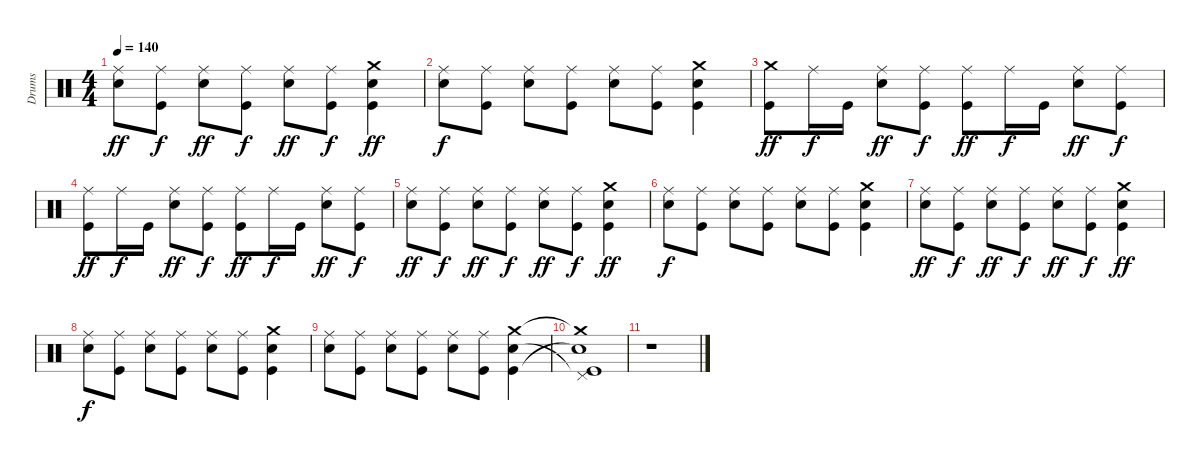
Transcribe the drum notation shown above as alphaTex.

\track ("Drums" "Drums") {instrument percussion}
\staff {score}
\articulation defaults
\ts (4 4)
\tempo 140
\clef neutral
\ks c
("Ride (middle)" "Snare (hit) 2").8{dy ff} ("Ride (middle)" "Kick (hit)").8{dy f} ("Ride (middle)" "Snare (hit) 2").8{dy ff} ("Ride (middle)" "Kick (hit)").8{dy f} ("Ride (middle)" "Snare (hit) 2").8{dy ff} ("Ride (middle)" "Kick (hit)").8{dy f} ("Crash medium (hit)" "Snare (hit) 2" "Kick (hit)").4{dy ff} |
("Ride (middle)" "Snare (hit) 2").8{dy f} ("Ride (middle)" "Kick (hit)").8 ("Ride (middle)" "Snare (hit) 2").8 ("Ride (middle)" "Kick (hit)").8 ("Ride (middle)" "Snare (hit) 2").8 ("Ride (middle)" "Kick (hit)").8 ("Crash medium (hit)" "Snare (hit) 2" "Kick (hit)").4 |
("Crash medium (hit)" "Kick (hit)").8{dy ff} "Ride (middle)".16{dy f} "Kick (hit)".16 ("Ride (middle)" "Snare (hit) 2").8{dy ff} ("Ride (middle)" "Kick (hit)").8{dy f} ("Ride (middle)" "Kick (hit)").8{dy ff} "Ride (middle)".16{dy f} "Kick (hit)".16 ("Ride (middle)" "Snare (hit) 2").8{dy ff} ("Ride (middle)" "Kick (hit)").8{dy f} |
("Ride (middle)" "Kick (hit)").8{dy ff} "Ride (middle)".16{dy f} "Kick (hit)".16 ("Ride (middle)" "Snare (hit) 2").8{dy ff} ("Ride (middle)" "Kick (hit)").8{dy f} ("Ride (middle)" "Kick (hit)").8{dy ff} "Ride (middle)".16{dy f} "Kick (hit)".16 ("Ride (middle)" "Snare (hit) 2").8{dy ff} ("Ride (middle)" "Kick (hit)").8{dy f} |
("Ride (middle)" "Snare (hit) 2").8{dy ff} ("Ride (middle)" "Kick (hit)").8{dy f} ("Ride (middle)" "Snare (hit) 2").8{dy ff} ("Ride (middle)" "Kick (hit)").8{dy f} ("Ride (middle)" "Snare (hit) 2").8{dy ff} ("Ride (middle)" "Kick (hit)").8{dy f} ("Crash medium (hit)" "Snare (hit) 2" "Kick (hit)").4{dy ff} |
("Ride (middle)" "Snare (hit) 2").8{dy f} ("Ride (middle)" "Kick (hit)").8 ("Ride (middle)" "Snare (hit) 2").8 ("Ride (middle)" "Kick (hit)").8 ("Ride (middle)" "Snare (hit) 2").8 ("Ride (middle)" "Kick (hit)").8 ("Crash medium (hit)" "Snare (hit) 2" "Kick (hit)").4 |
("Ride (middle)" "Snare (hit) 2").8{dy ff} ("Ride (middle)" "Kick (hit)").8{dy f} ("Ride (middle)" "Snare (hit) 2").8{dy ff} ("Ride (middle)" "Kick (hit)").8{dy f} ("Ride (middle)" "Snare (hit) 2").8{dy ff} ("Ride (middle)" "Kick (hit)").8{dy f} ("Crash medium (hit)" "Snare (hit) 2" "Kick (hit)").4{dy ff} |
("Ride (middle)" "Snare (hit) 2").8{dy f} ("Ride (middle)" "Kick (hit)").8 ("Ride (middle)" "Snare (hit) 2").8 ("Ride (middle)" "Kick (hit)").8 ("Ride (middle)" "Snare (hit) 2").8 ("Ride (middle)" "Kick (hit)").8 ("Crash medium (hit)" "Snare (hit) 2" "Kick (hit)").4 |
("Ride (middle)" "Snare (hit) 2").8 ("Ride (middle)" "Kick (hit)").8 ("Ride (middle)" "Snare (hit) 2").8 ("Ride (middle)" "Kick (hit)").8 ("Ride (middle)" "Snare (hit) 2").8 ("Ride (middle)" "Kick (hit)").8 ("Crash medium (hit)" "Snare (hit) 2" "Kick (hit)").4 |
("Crash medium (hit)"{t} "Pedal Hi-Hat (hit)"{t} "Snare (hit) 2"{t} "Kick (hit)").1 |
r.1
